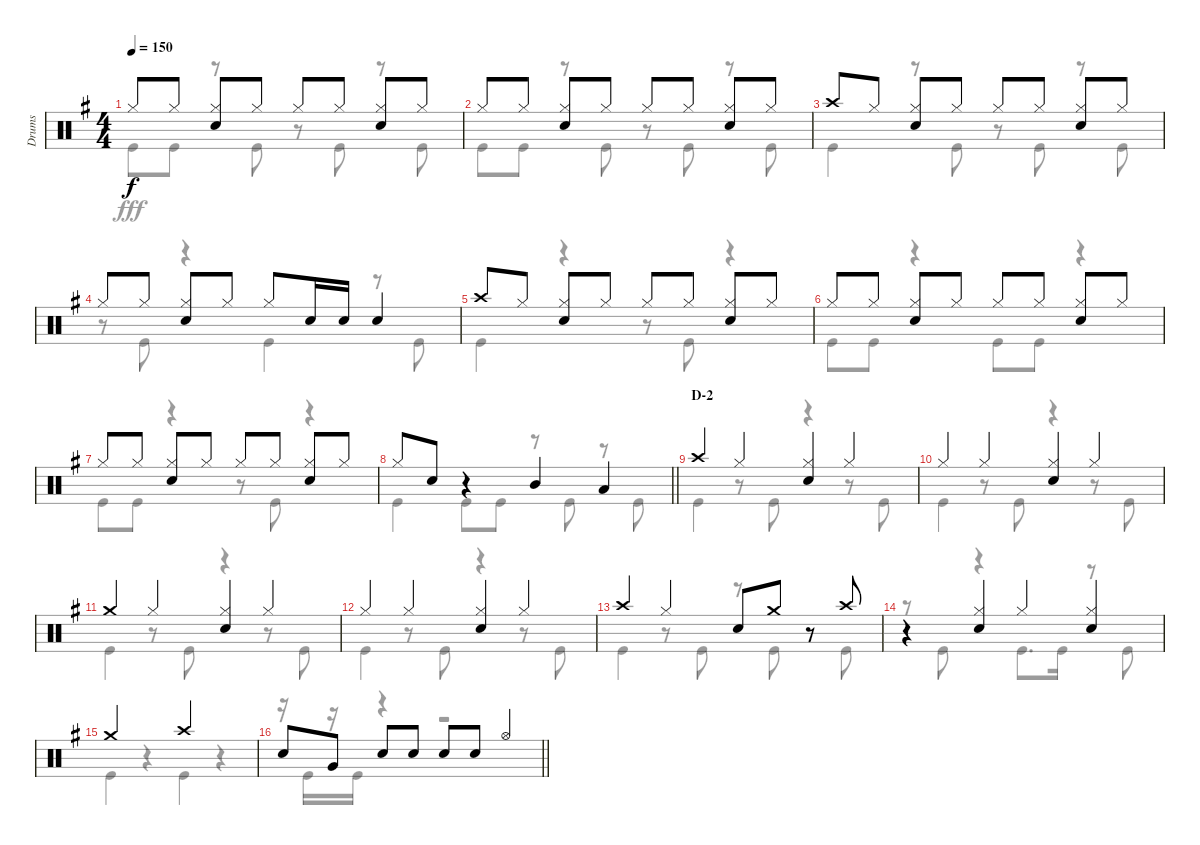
\track ("Drums" "Drums") {instrument percussion}
\staff {score}
\articulation defaults
\voice
\ts (4 4)
\tempo 150
\clef neutral
\ks g "Hi-Hat (closed)".8{dy f} "Hi-Hat (closed)".8
("Hi-Hat (closed)" "Snare (hit) 2").8 "Hi-Hat (closed)".8 "Hi-Hat (closed)".8 "Hi-Hat (closed)".8 ("Hi-Hat (closed)" "Snare (hit) 2").8 "Hi-Hat (closed)".8 |
"Hi-Hat (closed)".8 "Hi-Hat (closed)".8 ("Hi-Hat (closed)" "Snare (hit) 2").8 "Hi-Hat (closed)".8 "Hi-Hat (closed)".8 "Hi-Hat (closed)".8 ("Hi-Hat (closed)" "Snare (hit) 2").8 "Hi-Hat (closed)".8 |
"Crash high (hit)".8 "Hi-Hat (closed)".8 ("Hi-Hat (closed)" "Snare (hit) 2").8 "Hi-Hat (closed)".8 "Hi-Hat (closed)".8 "Hi-Hat (closed)".8 ("Hi-Hat (closed)" "Snare (hit) 2").8 "Hi-Hat (closed)".8 |
"Hi-Hat (closed)".8 "Hi-Hat (closed)".8 ("Hi-Hat (closed)" "Snare (hit) 2").8 "Hi-Hat (closed)".8 "Hi-Hat (closed)".8 "Snare (hit) 2".16 "Snare (hit) 2".16 "Snare (hit) 2".4 |
"Crash high (hit)".8 "Hi-Hat (closed)".8 ("Hi-Hat (closed)" "Snare (hit) 2").8 "Hi-Hat (closed)".8 "Hi-Hat (closed)".8 "Hi-Hat (closed)".8 ("Hi-Hat (closed)" "Snare (hit) 2").8 "Hi-Hat (closed)".8 |
"Hi-Hat (closed)".8 "Hi-Hat (closed)".8 ("Hi-Hat (closed)" "Snare (hit) 2").8 "Hi-Hat (closed)".8 "Hi-Hat (closed)".8 "Hi-Hat (closed)".8 ("Hi-Hat (closed)" "Snare (hit) 2").8 "Hi-Hat (closed)".8 |
"Hi-Hat (closed)".8 "Hi-Hat (closed)".8 ("Hi-Hat (closed)" "Snare (hit) 2").8 "Hi-Hat (closed)".8 "Hi-Hat (closed)".8 "Hi-Hat (closed)".8 ("Hi-Hat (closed)" "Snare (hit) 2").8 "Hi-Hat (closed)".8 |
\barLineRight lightlight "Hi-Hat (closed)".8 "Snare (hit) 2".8
r.4 "Mid Tom (hit)".4 "Low Tom (hit)".4 |
\section ("" "D-2")
"Crash high (hit)".4 "Hi-Hat (closed)".4 ("Hi-Hat (closed)" "Snare (hit) 2").4 "Hi-Hat (closed)".4 |
"Hi-Hat (closed)".4 "Hi-Hat (closed)".4 ("Hi-Hat (closed)" "Snare (hit) 2").4 "Hi-Hat (closed)".4 |
"Crash medium (hit)".4 "Hi-Hat (closed)".4 ("Hi-Hat (closed)" "Snare (hit) 2").4 "Hi-Hat (closed)".4 |
"Hi-Hat (closed)".4 "Hi-Hat (closed)".4 ("Hi-Hat (closed)" "Snare (hit) 2").4 "Hi-Hat (closed)".4 |
"Crash high (hit)".4 "Hi-Hat (closed)".4 "Snare (hit) 2".8 "Crash medium (hit)".8 r.8 "Crash high (hit)".8 |
r.4 ("Hi-Hat (closed)" "Snare (hit) 2").4 "Hi-Hat (closed)".4 ("Hi-Hat (closed)" "Snare (hit) 2").4 |
"Crash medium (hit)".2 "Crash high (hit)".2 |
\barLineRight lightlight "Snare (hit) 2".8 "Very Low Tom (hit)".8 "Snare (hit) 2".8 "Snare (hit) 2".8 "Snare (hit) 2".8 "Snare (hit) 2".8 "Hi-Hat (open)".4
\voice
\clef neutral
\ottava regular
\simile none
\ks g "Kick (hit)".8{dy fff} "Kick (hit)".8
r.8 "Kick (hit)".8 r.8 "Kick (hit)".8 r.8 "Kick (hit)".8 |
"Kick (hit)".8 "Kick (hit)".8 r.8 "Kick (hit)".8 r.8 "Kick (hit)".8 r.8 "Kick (hit)".8 |
"Kick (hit)".4 r.8 "Kick (hit)".8 r.8 "Kick (hit)".8 r.8 "Kick (hit)".8 |
r.8 "Kick (hit)".8 r.4 "Kick (hit)".4 r.8 "Kick (hit)".8 |
"Kick (hit)".4 r.4 r.8 "Kick (hit)".8 r.4 |
"Kick (hit)".8 "Kick (hit)".8 r.4 "Kick (hit)".8 "Kick (hit)".8 r.4 |
"Kick (hit)".8 "Kick (hit)".8 r.4 r.8 "Kick (hit)".8 r.4 |
\barLineRight lightlight "Kick (hit)".4 "Kick (hit)".8 "Kick (hit)".8
r.8 "Kick (hit)".8 r.8 "Kick (hit)".8 |
"Kick (hit)".4 r.8 "Kick (hit)".8 r.4 r.8 "Kick (hit)".8 |
"Kick (hit)".4 r.8 "Kick (hit)".8 r.4 r.8 "Kick (hit)".8 |
"Kick (hit)".4 r.8 "Kick (hit)".8 r.4 r.8 "Kick (hit)".8 |
"Kick (hit)".4 r.8 "Kick (hit)".8 r.4 r.8 "Kick (hit)".8 |
"Kick (hit)".4 r.8 "Kick (hit)".8 r.8 "Kick (hit)".8 r.8 "Kick (hit)".8 |
r.8 "Kick (hit)".8 r.4 "Kick (hit)".8{d} "Kick (hit)".16 r.8 "Kick (hit)".8 |
"Kick (hit)".4 r.4 "Kick (hit)".4 r.4 |
\barLineRight lightlight
r.16 "Kick (hit)".16 r.16 "Kick (hit)".16 r.4 r.2
